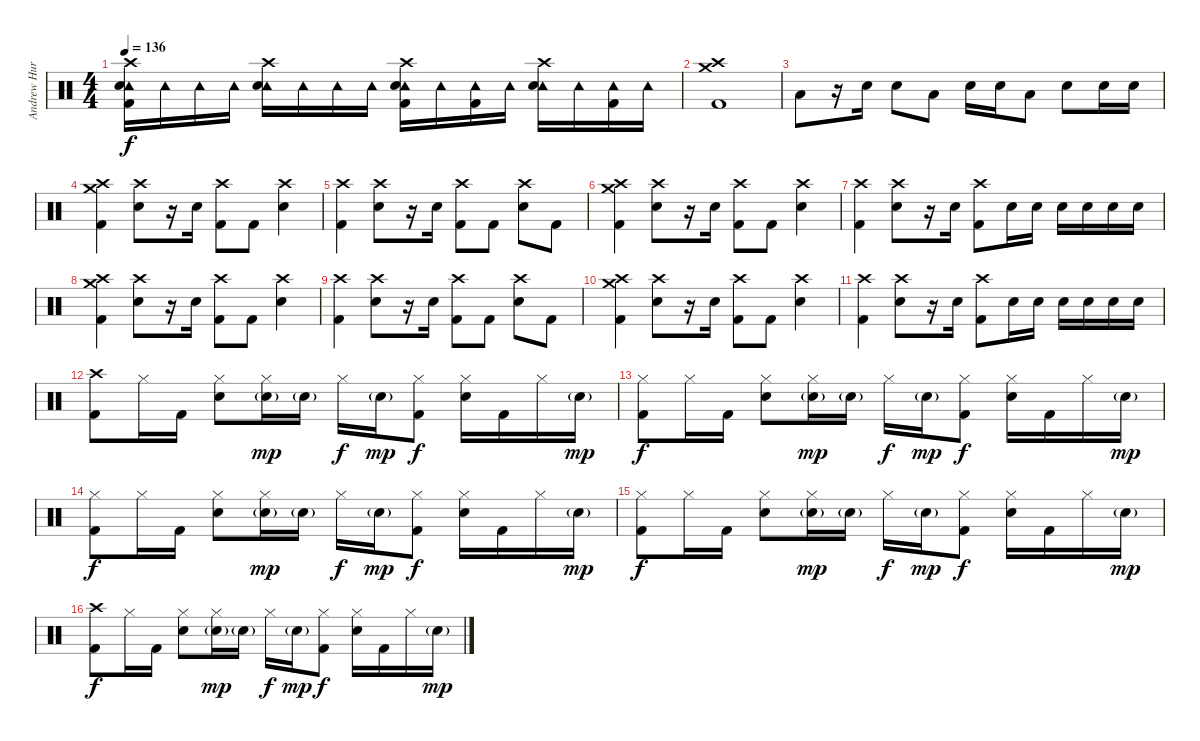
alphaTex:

\track ("Andrew Hurley (Drums)" "Andrew Hur") {instrument percussion}
\staff {score}
\articulation defaults
\ts (4 4)
\tempo 136
\clef neutral
\ks c
("Crash high (hit)" "Tambourine (hit)" "Snare (hit) 2" "Kick (hit) 2").16{dy f} "Tambourine (hit)".16 "Tambourine (hit)".16 "Tambourine (hit)".16 ("Crash high (hit)" "Tambourine (hit)" "Snare (hit) 2").16 "Tambourine (hit)".16 "Tambourine (hit)".16 "Tambourine (hit)".16 ("Crash high (hit)" "Tambourine (hit)" "Snare (hit) 2" "Kick (hit) 2").16 "Tambourine (hit)".16 ("Tambourine (hit)" "Kick (hit) 2").16 "Tambourine (hit)".16 ("Crash high (hit)" "Tambourine (hit)" "Snare (hit) 2").16 "Tambourine (hit)".16 ("Tambourine (hit)" "Kick (hit) 2").16 "Tambourine (hit)".16 |
("Crash high (hit)" "Crash medium (hit)" "Kick (hit) 2").1 |
"Low Tom (hit)".8 r.16 "Snare (hit) 2".16 "Snare (hit) 2".8 "Low Tom (hit)".8 "Snare (hit) 2".16 "Snare (hit) 2".16 "Low Tom (hit)".8 "Snare (hit) 2".8 "Snare (hit) 2".16 "Snare (hit) 2".16 |
("Crash high (hit)" "Crash medium (hit)" "Kick (hit) 2").4 ("Crash high (hit)" "Snare (hit) 2").8 r.16 "Snare (hit) 2".16 ("Crash high (hit)" "Kick (hit) 2").8 "Kick (hit) 2".8 ("Crash high (hit)" "Snare (hit) 2").4 |
("Crash high (hit)" "Kick (hit) 2").4 ("Crash high (hit)" "Snare (hit) 2").8 r.16 "Snare (hit) 2".16 ("Crash high (hit)" "Kick (hit) 2").8 "Kick (hit) 2".8 ("Crash high (hit)" "Snare (hit) 2").8 "Kick (hit) 2".8 |
("Crash high (hit)" "Crash medium (hit)" "Kick (hit) 2").4 ("Crash high (hit)" "Snare (hit) 2").8 r.16 "Snare (hit) 2".16 ("Crash high (hit)" "Kick (hit) 2").8 "Kick (hit) 2".8 ("Crash high (hit)" "Snare (hit) 2").4 |
("Crash high (hit)" "Kick (hit) 2").4 ("Crash high (hit)" "Snare (hit) 2").8 r.16 "Snare (hit) 2".16 ("Crash high (hit)" "Kick (hit) 2").8 "Snare (hit) 2".16 "Snare (hit) 2".16 "Snare (hit) 2".16 "Snare (hit) 2".16 "Snare (hit) 2".16 "Snare (hit) 2".16 |
("Crash high (hit)" "Crash medium (hit)" "Kick (hit) 2").4 ("Crash high (hit)" "Snare (hit) 2").8 r.16 "Snare (hit) 2".16 ("Crash high (hit)" "Kick (hit) 2").8 "Kick (hit) 2".8 ("Crash high (hit)" "Snare (hit) 2").4 |
("Crash high (hit)" "Kick (hit) 2").4 ("Crash high (hit)" "Snare (hit) 2").8 r.16 "Snare (hit) 2".16 ("Crash high (hit)" "Kick (hit) 2").8 "Kick (hit) 2".8 ("Crash high (hit)" "Snare (hit) 2").8 "Kick (hit) 2".8 |
("Crash high (hit)" "Crash medium (hit)" "Kick (hit) 2").4 ("Crash high (hit)" "Snare (hit) 2").8 r.16 "Snare (hit) 2".16 ("Crash high (hit)" "Kick (hit) 2").8 "Kick (hit) 2".8 ("Crash high (hit)" "Snare (hit) 2").4 |
("Crash high (hit)" "Kick (hit) 2").4 ("Crash high (hit)" "Snare (hit) 2").8 r.16 "Snare (hit) 2".16 ("Crash high (hit)" "Kick (hit) 2").8 "Snare (hit) 2".16 "Snare (hit) 2".16 "Snare (hit) 2".16 "Snare (hit) 2".16 "Snare (hit) 2".16 "Snare (hit) 2".16 |
("Crash high (hit)" "Kick (hit) 2").8 "Hi-Hat (closed)".16 "Kick (hit) 2".16 ("Hi-Hat (closed)" "Snare (hit) 2").8 ("Hi-Hat (closed)" "Snare (hit) 2"{g}).16{dy mp} "Snare (hit) 2"{g}.16 "Hi-Hat (closed)".16{dy f} "Snare (hit) 2"{g}.16{dy mp} ("Hi-Hat (closed)" "Kick (hit) 2").8{dy f} ("Hi-Hat (closed)" "Snare (hit) 2").16 "Kick (hit) 2".16 "Hi-Hat (closed)".16 "Snare (hit) 2"{g}.16{dy mp} |
("Hi-Hat (closed)" "Kick (hit) 2").8{dy f} "Hi-Hat (closed)".16 "Kick (hit) 2".16 ("Hi-Hat (closed)" "Snare (hit) 2").8 ("Hi-Hat (closed)" "Snare (hit) 2"{g}).16{dy mp} "Snare (hit) 2"{g}.16 "Hi-Hat (closed)".16{dy f} "Snare (hit) 2"{g}.16{dy mp} ("Hi-Hat (closed)" "Kick (hit) 2").8{dy f} ("Hi-Hat (closed)" "Snare (hit) 2").16 "Kick (hit) 2".16 "Hi-Hat (closed)".16 "Snare (hit) 2"{g}.16{dy mp} |
("Hi-Hat (closed)" "Kick (hit) 2").8{dy f} "Hi-Hat (closed)".16 "Kick (hit) 2".16 ("Hi-Hat (closed)" "Snare (hit) 2").8 ("Hi-Hat (closed)" "Snare (hit) 2"{g}).16{dy mp} "Snare (hit) 2"{g}.16 "Hi-Hat (closed)".16{dy f} "Snare (hit) 2"{g}.16{dy mp} ("Hi-Hat (closed)" "Kick (hit) 2").8{dy f} ("Hi-Hat (closed)" "Snare (hit) 2").16 "Kick (hit) 2".16 "Hi-Hat (closed)".16 "Snare (hit) 2"{g}.16{dy mp} |
("Hi-Hat (closed)" "Kick (hit) 2").8{dy f} "Hi-Hat (closed)".16 "Kick (hit) 2".16 ("Hi-Hat (closed)" "Snare (hit) 2").8 ("Hi-Hat (closed)" "Snare (hit) 2"{g}).16{dy mp} "Snare (hit) 2"{g}.16 "Hi-Hat (closed)".16{dy f} "Snare (hit) 2"{g}.16{dy mp} ("Hi-Hat (closed)" "Kick (hit) 2").8{dy f} ("Hi-Hat (closed)" "Snare (hit) 2").16 "Kick (hit) 2".16 "Hi-Hat (closed)".16 "Snare (hit) 2"{g}.16{dy mp} |
("Crash high (hit)" "Kick (hit) 2").8{dy f} "Hi-Hat (closed)".16 "Kick (hit) 2".16 ("Hi-Hat (closed)" "Snare (hit) 2").8 ("Hi-Hat (closed)" "Snare (hit) 2"{g}).16{dy mp} "Snare (hit) 2"{g}.16 "Hi-Hat (closed)".16{dy f} "Snare (hit) 2"{g}.16{dy mp} ("Hi-Hat (closed)" "Kick (hit) 2").8{dy f} ("Hi-Hat (closed)" "Snare (hit) 2").16 "Kick (hit) 2".16 "Hi-Hat (closed)".16 "Snare (hit) 2"{g}.16{dy mp}
